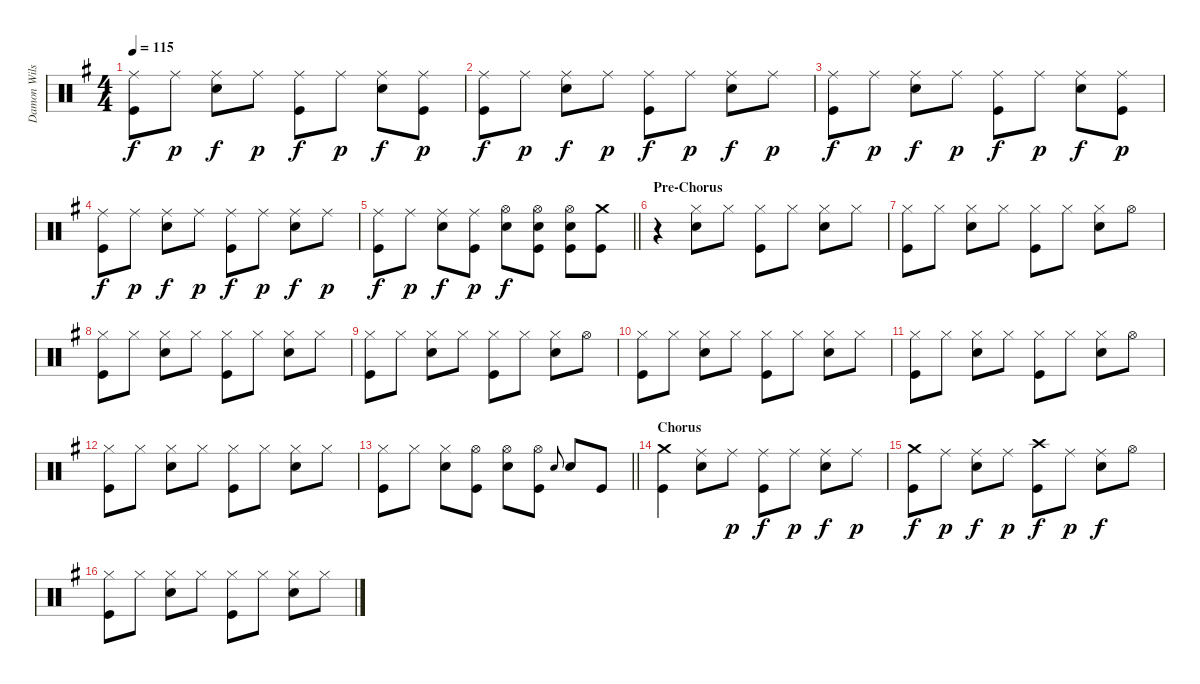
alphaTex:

\track ("Damon Wilson" "Damon Wils") {instrument percussion}
\staff {score}
\articulation defaults
\ts (4 4)
\tempo 115
\clef neutral
\ks g
("Ride (middle)" "Kick (hit)").8{dy f} "Ride (middle)".8{dy p} ("Ride (middle)" "Electric Snare (hit)").8{dy f} "Ride (middle)".8{dy p} ("Ride (middle)" "Kick (hit)").8{dy f} "Ride (middle)".8{dy p} ("Ride (middle)" "Electric Snare (hit)").8{dy f} ("Ride (middle)" "Kick (hit)").8{dy p} |
("Ride (middle)" "Kick (hit)").8{dy f} "Ride (middle)".8{dy p} ("Ride (middle)" "Electric Snare (hit)").8{dy f} "Ride (middle)".8{dy p} ("Ride (middle)" "Kick (hit)").8{dy f} "Ride (middle)".8{dy p} ("Ride (middle)" "Electric Snare (hit)").8{dy f} "Ride (middle)".8{dy p} |
("Ride (middle)" "Kick (hit)").8{dy f} "Ride (middle)".8{dy p} ("Ride (middle)" "Electric Snare (hit)").8{dy f} "Ride (middle)".8{dy p} ("Ride (middle)" "Kick (hit)").8{dy f} "Ride (middle)".8{dy p} ("Ride (middle)" "Electric Snare (hit)").8{dy f} ("Ride (middle)" "Kick (hit)").8{dy p} |
("Ride (middle)" "Kick (hit)").8{dy f} "Ride (middle)".8{dy p} ("Ride (middle)" "Electric Snare (hit)").8{dy f} "Ride (middle)".8{dy p} ("Ride (middle)" "Kick (hit)").8{dy f} "Ride (middle)".8{dy p} ("Ride (middle)" "Electric Snare (hit)").8{dy f} "Ride (middle)".8{dy p} |
\barLineRight lightlight
("Ride (middle)" "Kick (hit)").8{dy f} "Ride (middle)".8{dy p} ("Ride (middle)" "Electric Snare (hit)").8{dy f} ("Ride (middle)" "Kick (hit)").8{dy p} ("Hi-Hat (open)" "Electric Snare (hit)").8{dy f} ("Hi-Hat (open)" "Electric Snare (hit)" "Kick (hit)").8 ("Hi-Hat (open)" "Electric Snare (hit)" "Kick (hit)").8 ("Crash medium (hit)" "Kick (hit)").8 |
\section ("" "Pre-Chorus")
r.4 ("Hi-Hat (closed)" "Electric Snare (hit)").8 "Hi-Hat (closed)".8 ("Hi-Hat (closed)" "Kick (hit)").8 "Hi-Hat (closed)".8 ("Hi-Hat (closed)" "Electric Snare (hit)").8 "Hi-Hat (closed)".8 |
("Hi-Hat (closed)" "Kick (hit)").8 "Hi-Hat (closed)".8 ("Hi-Hat (closed)" "Electric Snare (hit)").8 "Hi-Hat (closed)".8 ("Hi-Hat (closed)" "Kick (hit)").8 "Hi-Hat (closed)".8 ("Hi-Hat (closed)" "Electric Snare (hit)").8 "Hi-Hat (open)".8 |
("Hi-Hat (closed)" "Kick (hit)").8 "Hi-Hat (closed)".8 ("Hi-Hat (closed)" "Electric Snare (hit)").8 "Hi-Hat (closed)".8 ("Hi-Hat (closed)" "Kick (hit)").8 "Hi-Hat (closed)".8 ("Hi-Hat (closed)" "Electric Snare (hit)").8 "Hi-Hat (closed)".8 |
("Hi-Hat (closed)" "Kick (hit)").8 "Hi-Hat (closed)".8 ("Hi-Hat (closed)" "Electric Snare (hit)").8 "Hi-Hat (closed)".8 ("Hi-Hat (closed)" "Kick (hit)").8 "Hi-Hat (closed)".8 ("Hi-Hat (closed)" "Electric Snare (hit)").8 "Hi-Hat (open)".8 |
("Hi-Hat (closed)" "Kick (hit)").8 "Hi-Hat (closed)".8 ("Hi-Hat (closed)" "Electric Snare (hit)").8 "Hi-Hat (closed)".8 ("Hi-Hat (closed)" "Kick (hit)").8 "Hi-Hat (closed)".8 ("Hi-Hat (closed)" "Electric Snare (hit)").8 "Hi-Hat (closed)".8 |
("Hi-Hat (closed)" "Kick (hit)").8 "Hi-Hat (closed)".8 ("Hi-Hat (closed)" "Electric Snare (hit)").8 "Hi-Hat (closed)".8 ("Hi-Hat (closed)" "Kick (hit)").8 "Hi-Hat (closed)".8 ("Hi-Hat (closed)" "Electric Snare (hit)").8 "Hi-Hat (open)".8 |
("Hi-Hat (closed)" "Kick (hit)").8 "Hi-Hat (closed)".8 ("Hi-Hat (closed)" "Electric Snare (hit)").8 "Hi-Hat (closed)".8 ("Hi-Hat (closed)" "Kick (hit)").8 "Hi-Hat (closed)".8 ("Hi-Hat (closed)" "Electric Snare (hit)").8 "Hi-Hat (closed)".8 |
\barLineRight lightlight
("Hi-Hat (closed)" "Kick (hit)").8 "Hi-Hat (closed)".8 ("Hi-Hat (closed)" "Electric Snare (hit)").8 ("Hi-Hat (open)" "Kick (hit)").8 ("Hi-Hat (open)" "Electric Snare (hit)").8 ("Hi-Hat (open)" "Kick (hit)").8 "Electric Snare (hit)".8{gr onbeat} "Electric Snare (hit)".8 "Kick (hit)".8 |
\section ("" "Chorus")
("Crash medium (hit)" "Kick (hit)").4 ("Ride (middle)" "Electric Snare (hit)").8 "Ride (middle)".8{dy p} ("Ride (middle)" "Kick (hit)").8{dy f} "Ride (middle)".8{dy p} ("Ride (middle)" "Electric Snare (hit)").8{dy f} "Ride (middle)".8{dy p} |
("Crash medium (hit)" "Kick (hit)").8{dy f} "Ride (middle)".8{dy p} ("Ride (middle)" "Electric Snare (hit)").8{dy f} "Ride (middle)".8{dy p} ("Crash high (hit)" "Kick (hit)").8{dy f} "Ride (middle)".8{dy p} ("Ride (middle)" "Electric Snare (hit)").8{dy f} "Hi-Hat (open)".8 |
("Hi-Hat (closed)" "Kick (hit)").8 "Hi-Hat (closed)".8 ("Hi-Hat (closed)" "Electric Snare (hit)").8 "Hi-Hat (closed)".8 ("Hi-Hat (closed)" "Kick (hit)").8 "Hi-Hat (closed)".8 ("Hi-Hat (closed)" "Electric Snare (hit)").8 "Hi-Hat (closed)".8
